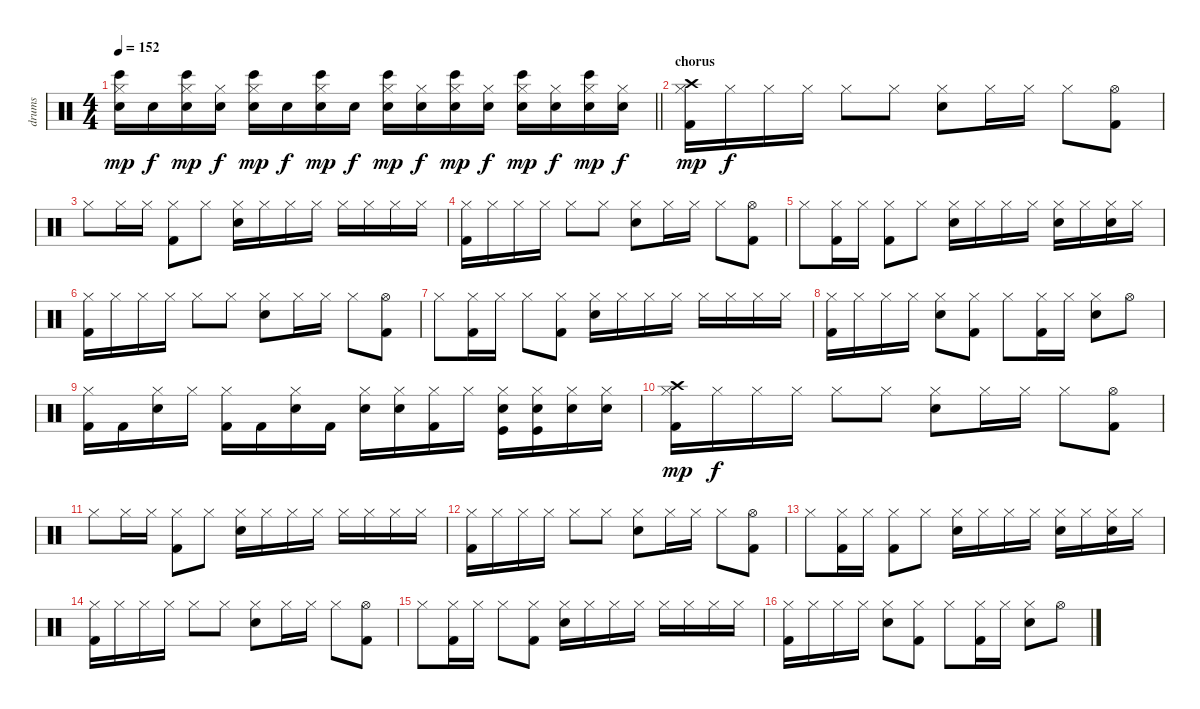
\track ("drums" "drums") {instrument percussion}
\staff {score}
\articulation defaults
\ts (4 4)
\tempo 152
\clef neutral
\barLineRight lightlight
\ks c
("Hi-Hat (closed)" "Bongo High (hit)" "Electric Snare (hit)").16{dy mp} "Electric Snare (hit)".16{dy f} ("Hi-Hat (closed)" "Bongo High (hit)" "Electric Snare (hit)").16{dy mp} ("Hi-Hat (closed)" "Electric Snare (hit)").16{dy f} ("Hi-Hat (closed)" "Bongo High (hit)" "Electric Snare (hit)").16{dy mp} "Electric Snare (hit)".16{dy f} ("Hi-Hat (closed)" "Bongo High (hit)" "Electric Snare (hit)").16{dy mp} "Electric Snare (hit)".16{dy f} ("Hi-Hat (closed)" "Bongo High (hit)" "Electric Snare (hit)").16{dy mp} ("Hi-Hat (closed)" "Electric Snare (hit)").16{dy f} ("Hi-Hat (closed)" "Bongo High (hit)" "Electric Snare (hit)").16{dy mp} ("Hi-Hat (closed)" "Electric Snare (hit)").16{dy f} ("Hi-Hat (closed)" "Bongo High (hit)" "Electric Snare (hit)").16{dy mp} ("Hi-Hat (closed)" "Electric Snare (hit)").16{dy f} ("Hi-Hat (closed)" "Bongo High (hit)" "Electric Snare (hit)").16{dy mp} ("Hi-Hat (closed)" "Electric Snare (hit)").16{dy f} |
\section ("" "chorus")
("Hi-Hat (closed)" "Kick (hit) 2" "Crash high (hit)").16{dy mp} "Hi-Hat (closed)".16{dy f} "Hi-Hat (closed)".16 "Hi-Hat (closed)".16 "Hi-Hat (closed)".8 "Hi-Hat (closed)".8 ("Snare (hit) 2" "Hi-Hat (closed)").8 "Hi-Hat (closed)".16 "Hi-Hat (closed)".16 "Hi-Hat (closed)".8 ("Hi-Hat (open)" "Kick (hit) 2").8 |
"Hi-Hat (closed)".8 "Hi-Hat (closed)".16 "Hi-Hat (closed)".16 ("Hi-Hat (closed)" "Kick (hit) 2").8 "Hi-Hat (closed)".8 ("Hi-Hat (closed)" "Snare (hit) 2").16 "Hi-Hat (closed)".16 "Hi-Hat (closed)".16 "Hi-Hat (closed)".16 "Hi-Hat (closed)".16 "Hi-Hat (closed)".16 "Hi-Hat (closed)".16 "Hi-Hat (closed)".16 |
("Hi-Hat (closed)" "Kick (hit) 2").16 "Hi-Hat (closed)".16 "Hi-Hat (closed)".16 "Hi-Hat (closed)".16 "Hi-Hat (closed)".8 "Hi-Hat (closed)".8 ("Snare (hit) 2" "Hi-Hat (closed)").8 "Hi-Hat (closed)".16 "Hi-Hat (closed)".16 "Hi-Hat (closed)".8 ("Hi-Hat (open)" "Kick (hit) 2").8 |
"Hi-Hat (closed)".8 ("Hi-Hat (closed)" "Kick (hit) 2").16 "Hi-Hat (closed)".16 ("Hi-Hat (closed)" "Kick (hit) 2").8 "Hi-Hat (closed)".8 ("Hi-Hat (closed)" "Snare (hit) 2").16 "Hi-Hat (closed)".16 "Hi-Hat (closed)".16 "Hi-Hat (closed)".16 ("Hi-Hat (closed)" "Snare (hit) 2").16 "Hi-Hat (closed)".16 ("Hi-Hat (closed)" "Snare (hit) 2").16 "Hi-Hat (closed)".16 |
("Hi-Hat (closed)" "Kick (hit) 2").16 "Hi-Hat (closed)".16 "Hi-Hat (closed)".16 "Hi-Hat (closed)".16 "Hi-Hat (closed)".8 "Hi-Hat (closed)".8 ("Snare (hit) 2" "Hi-Hat (closed)").8 "Hi-Hat (closed)".16 "Hi-Hat (closed)".16 "Hi-Hat (closed)".8 ("Hi-Hat (open)" "Kick (hit) 2").8 |
"Hi-Hat (closed)".8 ("Hi-Hat (closed)" "Kick (hit) 2").16 "Hi-Hat (closed)".16 "Hi-Hat (closed)".8 ("Hi-Hat (closed)" "Kick (hit) 2").8 ("Hi-Hat (closed)" "Snare (hit) 2").16 "Hi-Hat (closed)".16 "Hi-Hat (closed)".16 "Hi-Hat (closed)".16 "Hi-Hat (closed)".16 "Hi-Hat (closed)".16 "Hi-Hat (closed)".16 "Hi-Hat (closed)".16 |
("Hi-Hat (closed)" "Kick (hit) 2").16 "Hi-Hat (closed)".16 "Hi-Hat (closed)".16 "Hi-Hat (closed)".16 ("Hi-Hat (closed)" "Snare (hit) 2").8 ("Hi-Hat (closed)" "Kick (hit) 2").8 "Hi-Hat (closed)".8 ("Hi-Hat (closed)" "Kick (hit) 2").16 "Hi-Hat (closed)".16 ("Hi-Hat (closed)" "Snare (hit) 2").8 "Hi-Hat (open)".8 |
("Hi-Hat (closed)" "Kick (hit) 2").16 "Kick (hit) 2".16 ("Hi-Hat (closed)" "Snare (hit) 2").16 "Hi-Hat (closed)".16 ("Hi-Hat (closed)" "Kick (hit) 2").16 "Kick (hit) 2".16 ("Hi-Hat (closed)" "Snare (hit) 2").16 "Kick (hit) 2".16 ("Hi-Hat (closed)" "Snare (hit) 2").16 ("Hi-Hat (closed)" "Snare (hit) 2").16 ("Hi-Hat (closed)" "Kick (hit) 2").16 "Hi-Hat (closed)".16 ("Hi-Hat (closed)" "Snare (hit) 2" "Kick (hit)").16 ("Hi-Hat (closed)" "Snare (hit) 2" "Kick (hit)").16 ("Hi-Hat (closed)" "Snare (hit) 2").16 ("Hi-Hat (closed)" "Snare (hit) 2").16 |
("Hi-Hat (closed)" "Kick (hit) 2" "Crash high (hit)").16{dy mp} "Hi-Hat (closed)".16{dy f} "Hi-Hat (closed)".16 "Hi-Hat (closed)".16 "Hi-Hat (closed)".8 "Hi-Hat (closed)".8 ("Snare (hit) 2" "Hi-Hat (closed)").8 "Hi-Hat (closed)".16 "Hi-Hat (closed)".16 "Hi-Hat (closed)".8 ("Hi-Hat (open)" "Kick (hit) 2").8 |
"Hi-Hat (closed)".8 "Hi-Hat (closed)".16 "Hi-Hat (closed)".16 ("Hi-Hat (closed)" "Kick (hit) 2").8 "Hi-Hat (closed)".8 ("Hi-Hat (closed)" "Snare (hit) 2").16 "Hi-Hat (closed)".16 "Hi-Hat (closed)".16 "Hi-Hat (closed)".16 "Hi-Hat (closed)".16 "Hi-Hat (closed)".16 "Hi-Hat (closed)".16 "Hi-Hat (closed)".16 |
("Hi-Hat (closed)" "Kick (hit) 2").16 "Hi-Hat (closed)".16 "Hi-Hat (closed)".16 "Hi-Hat (closed)".16 "Hi-Hat (closed)".8 "Hi-Hat (closed)".8 ("Snare (hit) 2" "Hi-Hat (closed)").8 "Hi-Hat (closed)".16 "Hi-Hat (closed)".16 "Hi-Hat (closed)".8 ("Hi-Hat (open)" "Kick (hit) 2").8 |
"Hi-Hat (closed)".8 ("Hi-Hat (closed)" "Kick (hit) 2").16 "Hi-Hat (closed)".16 ("Hi-Hat (closed)" "Kick (hit) 2").8 "Hi-Hat (closed)".8 ("Hi-Hat (closed)" "Snare (hit) 2").16 "Hi-Hat (closed)".16 "Hi-Hat (closed)".16 "Hi-Hat (closed)".16 ("Hi-Hat (closed)" "Snare (hit) 2").16 "Hi-Hat (closed)".16 ("Hi-Hat (closed)" "Snare (hit) 2").16 "Hi-Hat (closed)".16 |
("Hi-Hat (closed)" "Kick (hit) 2").16 "Hi-Hat (closed)".16 "Hi-Hat (closed)".16 "Hi-Hat (closed)".16 "Hi-Hat (closed)".8 "Hi-Hat (closed)".8 ("Snare (hit) 2" "Hi-Hat (closed)").8 "Hi-Hat (closed)".16 "Hi-Hat (closed)".16 "Hi-Hat (closed)".8 ("Hi-Hat (open)" "Kick (hit) 2").8 |
"Hi-Hat (closed)".8 ("Hi-Hat (closed)" "Kick (hit) 2").16 "Hi-Hat (closed)".16 "Hi-Hat (closed)".8 ("Hi-Hat (closed)" "Kick (hit) 2").8 ("Hi-Hat (closed)" "Snare (hit) 2").16 "Hi-Hat (closed)".16 "Hi-Hat (closed)".16 "Hi-Hat (closed)".16 "Hi-Hat (closed)".16 "Hi-Hat (closed)".16 "Hi-Hat (closed)".16 "Hi-Hat (closed)".16 |
("Hi-Hat (closed)" "Kick (hit) 2").16 "Hi-Hat (closed)".16 "Hi-Hat (closed)".16 "Hi-Hat (closed)".16 ("Hi-Hat (closed)" "Snare (hit) 2").8 ("Hi-Hat (closed)" "Kick (hit) 2").8 "Hi-Hat (closed)".8 ("Hi-Hat (closed)" "Kick (hit) 2").16 "Hi-Hat (closed)".16 ("Hi-Hat (closed)" "Snare (hit) 2").8 "Hi-Hat (open)".8
